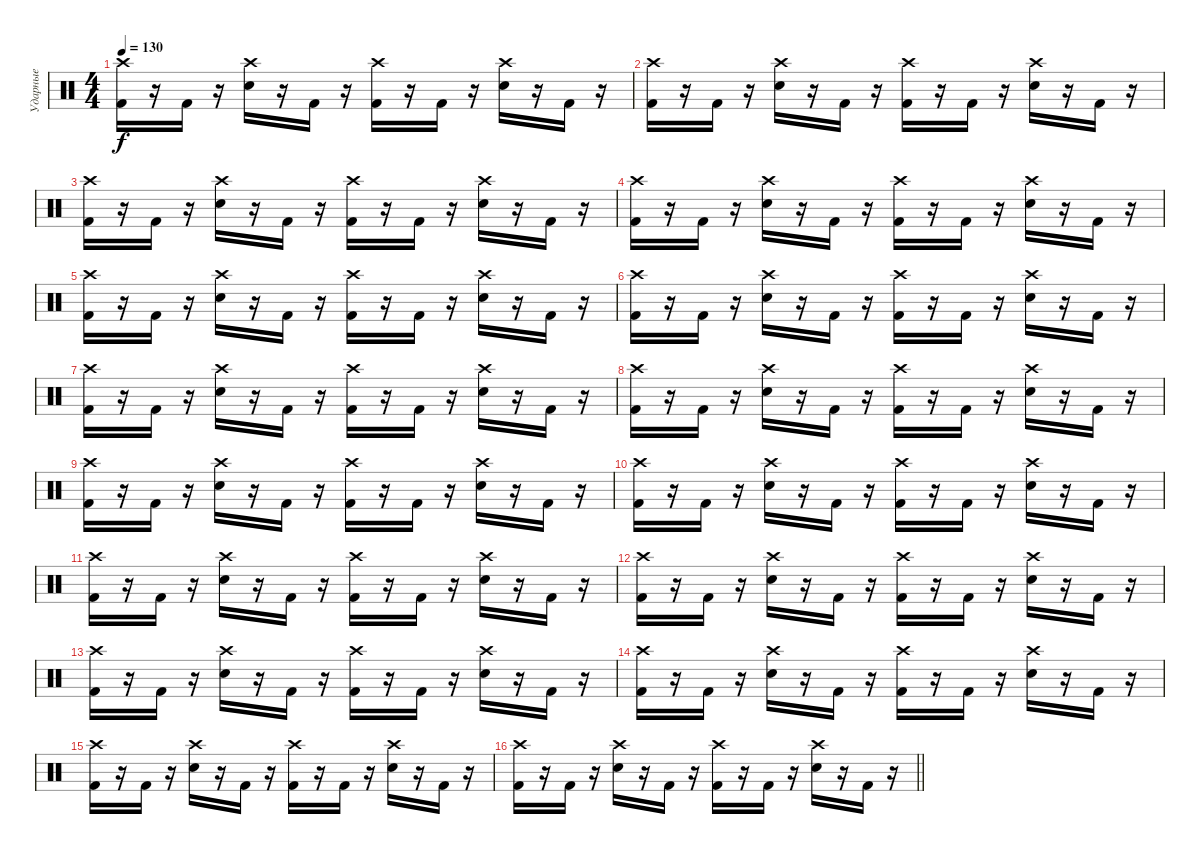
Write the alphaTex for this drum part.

\track ("Ударные" "Ударные") {instrument percussion}
\staff {score}
\articulation defaults
\ts (4 4)
\tempo 130
\clef neutral
\ks c
("Crash high (hit)" "Kick (hit) 2").16{dy f} r.16 "Kick (hit) 2".16 r.16 ("Crash high (hit)" "Electric Snare (hit)").16 r.16 "Kick (hit) 2".16 r.16 ("Crash high (hit)" "Kick (hit) 2").16 r.16 "Kick (hit) 2".16 r.16 ("Crash high (hit)" "Electric Snare (hit)").16 r.16 "Kick (hit) 2".16 r.16 |
("Crash high (hit)" "Kick (hit) 2").16 r.16 "Kick (hit) 2".16 r.16 ("Crash high (hit)" "Electric Snare (hit)").16 r.16 "Kick (hit) 2".16 r.16 ("Crash high (hit)" "Kick (hit) 2").16 r.16 "Kick (hit) 2".16 r.16 ("Crash high (hit)" "Electric Snare (hit)").16 r.16 "Kick (hit) 2".16 r.16 |
("Crash high (hit)" "Kick (hit) 2").16 r.16 "Kick (hit) 2".16 r.16 ("Crash high (hit)" "Electric Snare (hit)").16 r.16 "Kick (hit) 2".16 r.16 ("Crash high (hit)" "Kick (hit) 2").16 r.16 "Kick (hit) 2".16 r.16 ("Crash high (hit)" "Electric Snare (hit)").16 r.16 "Kick (hit) 2".16 r.16 |
("Crash high (hit)" "Kick (hit) 2").16 r.16 "Kick (hit) 2".16 r.16 ("Crash high (hit)" "Electric Snare (hit)").16 r.16 "Kick (hit) 2".16 r.16 ("Crash high (hit)" "Kick (hit) 2").16 r.16 "Kick (hit) 2".16 r.16 ("Crash high (hit)" "Electric Snare (hit)").16 r.16 "Kick (hit) 2".16 r.16 |
("Crash high (hit)" "Kick (hit) 2").16 r.16 "Kick (hit) 2".16 r.16 ("Crash high (hit)" "Electric Snare (hit)").16 r.16 "Kick (hit) 2".16 r.16 ("Crash high (hit)" "Kick (hit) 2").16 r.16 "Kick (hit) 2".16 r.16 ("Crash high (hit)" "Electric Snare (hit)").16 r.16 "Kick (hit) 2".16 r.16 |
("Crash high (hit)" "Kick (hit) 2").16 r.16 "Kick (hit) 2".16 r.16 ("Crash high (hit)" "Electric Snare (hit)").16 r.16 "Kick (hit) 2".16 r.16 ("Crash high (hit)" "Kick (hit) 2").16 r.16 "Kick (hit) 2".16 r.16 ("Crash high (hit)" "Electric Snare (hit)").16 r.16 "Kick (hit) 2".16 r.16 |
("Crash high (hit)" "Kick (hit) 2").16 r.16 "Kick (hit) 2".16 r.16 ("Crash high (hit)" "Electric Snare (hit)").16 r.16 "Kick (hit) 2".16 r.16 ("Crash high (hit)" "Kick (hit) 2").16 r.16 "Kick (hit) 2".16 r.16 ("Crash high (hit)" "Electric Snare (hit)").16 r.16 "Kick (hit) 2".16 r.16 |
("Crash high (hit)" "Kick (hit) 2").16 r.16 "Kick (hit) 2".16 r.16 ("Crash high (hit)" "Electric Snare (hit)").16 r.16 "Kick (hit) 2".16 r.16 ("Crash high (hit)" "Kick (hit) 2").16 r.16 "Kick (hit) 2".16 r.16 ("Crash high (hit)" "Electric Snare (hit)").16 r.16 "Kick (hit) 2".16 r.16 |
("Crash high (hit)" "Kick (hit) 2").16 r.16 "Kick (hit) 2".16 r.16 ("Crash high (hit)" "Electric Snare (hit)").16 r.16 "Kick (hit) 2".16 r.16 ("Crash high (hit)" "Kick (hit) 2").16 r.16 "Kick (hit) 2".16 r.16 ("Crash high (hit)" "Electric Snare (hit)").16 r.16 "Kick (hit) 2".16 r.16 |
("Crash high (hit)" "Kick (hit) 2").16 r.16 "Kick (hit) 2".16 r.16 ("Crash high (hit)" "Electric Snare (hit)").16 r.16 "Kick (hit) 2".16 r.16 ("Crash high (hit)" "Kick (hit) 2").16 r.16 "Kick (hit) 2".16 r.16 ("Crash high (hit)" "Electric Snare (hit)").16 r.16 "Kick (hit) 2".16 r.16 |
("Crash high (hit)" "Kick (hit) 2").16 r.16 "Kick (hit) 2".16 r.16 ("Crash high (hit)" "Electric Snare (hit)").16 r.16 "Kick (hit) 2".16 r.16 ("Crash high (hit)" "Kick (hit) 2").16 r.16 "Kick (hit) 2".16 r.16 ("Crash high (hit)" "Electric Snare (hit)").16 r.16 "Kick (hit) 2".16 r.16 |
("Crash high (hit)" "Kick (hit) 2").16 r.16 "Kick (hit) 2".16 r.16 ("Crash high (hit)" "Electric Snare (hit)").16 r.16 "Kick (hit) 2".16 r.16 ("Crash high (hit)" "Kick (hit) 2").16 r.16 "Kick (hit) 2".16 r.16 ("Crash high (hit)" "Electric Snare (hit)").16 r.16 "Kick (hit) 2".16 r.16 |
("Crash high (hit)" "Kick (hit) 2").16 r.16 "Kick (hit) 2".16 r.16 ("Crash high (hit)" "Electric Snare (hit)").16 r.16 "Kick (hit) 2".16 r.16 ("Crash high (hit)" "Kick (hit) 2").16 r.16 "Kick (hit) 2".16 r.16 ("Crash high (hit)" "Electric Snare (hit)").16 r.16 "Kick (hit) 2".16 r.16 |
("Crash high (hit)" "Kick (hit) 2").16 r.16 "Kick (hit) 2".16 r.16 ("Crash high (hit)" "Electric Snare (hit)").16 r.16 "Kick (hit) 2".16 r.16 ("Crash high (hit)" "Kick (hit) 2").16 r.16 "Kick (hit) 2".16 r.16 ("Crash high (hit)" "Electric Snare (hit)").16 r.16 "Kick (hit) 2".16 r.16 |
("Crash high (hit)" "Kick (hit) 2").16 r.16 "Kick (hit) 2".16 r.16 ("Crash high (hit)" "Electric Snare (hit)").16 r.16 "Kick (hit) 2".16 r.16 ("Crash high (hit)" "Kick (hit) 2").16 r.16 "Kick (hit) 2".16 r.16 ("Crash high (hit)" "Electric Snare (hit)").16 r.16 "Kick (hit) 2".16 r.16 |
\barLineRight lightlight
("Crash high (hit)" "Kick (hit) 2").16 r.16 "Kick (hit) 2".16 r.16 ("Crash high (hit)" "Electric Snare (hit)").16 r.16 "Kick (hit) 2".16 r.16 ("Crash high (hit)" "Kick (hit) 2").16 r.16 "Kick (hit) 2".16 r.16 ("Crash high (hit)" "Electric Snare (hit)").16 r.16 "Kick (hit) 2".16 r.16
